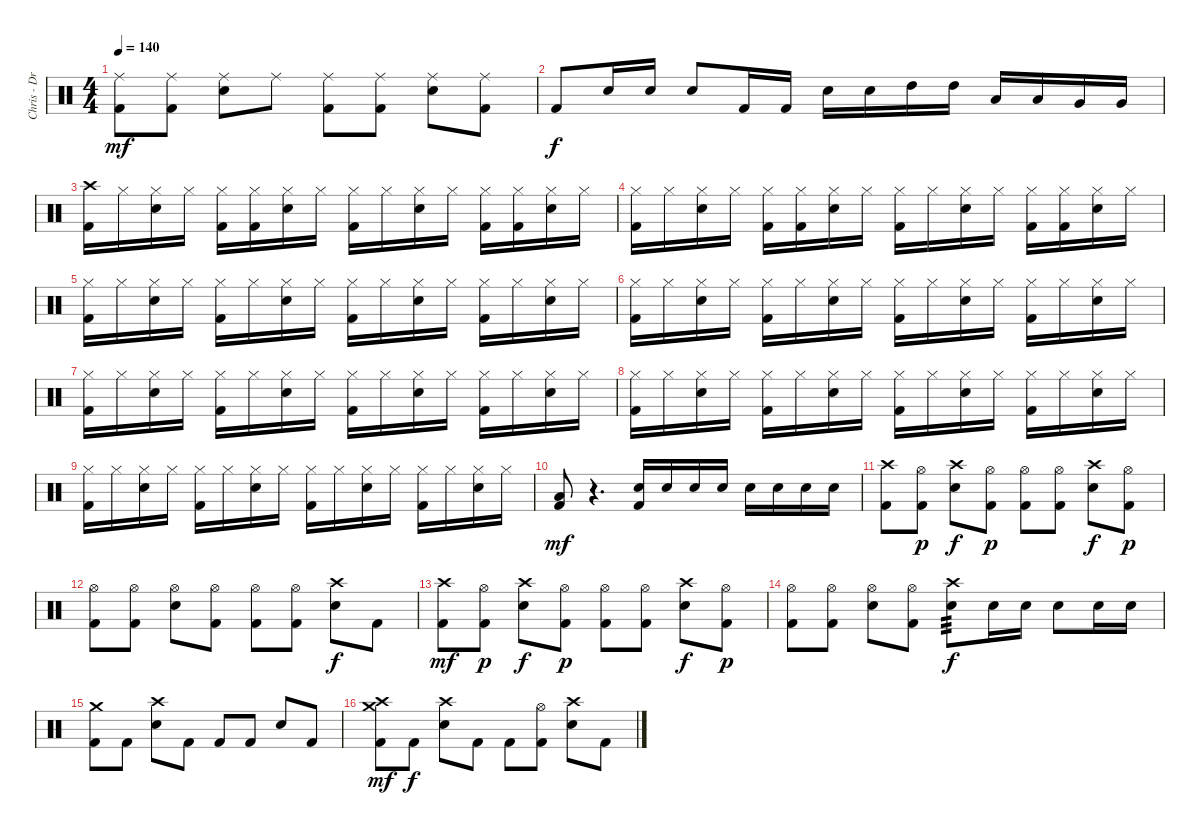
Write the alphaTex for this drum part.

\track ("Chris - Drums" "Chris - Dr") {instrument percussion}
\staff {score}
\articulation defaults
\ts (4 4)
\tempo 140
\clef neutral
\ks c
("Ride (middle)" "Kick (hit) 2").8{dy mf} ("Ride (middle)" "Kick (hit) 2").8 ("Ride (middle)" "Electric Snare (hit)").8 "Ride (middle)".8 ("Ride (middle)" "Kick (hit) 2").8 ("Ride (middle)" "Kick (hit) 2").8 ("Ride (middle)" "Electric Snare (hit)").8 ("Ride (middle)" "Kick (hit) 2").8 |
"Kick (hit) 2".8{dy f} "Electric Snare (hit)".16 "Electric Snare (hit)".16 "Electric Snare (hit)".8 "Kick (hit) 2".16 "Kick (hit) 2".16 "Electric Snare (hit)".16 "Electric Snare (hit)".16 "High Tom (hit)".16 "High Tom (hit)".16 "Low Tom (hit)".16 "Low Tom (hit)".16 "Very Low Tom (hit)".16 "Very Low Tom (hit)".16 |
("Crash high (hit)" "Kick (hit) 2").16 "Hi-Hat (closed)".16 ("Hi-Hat (closed)" "Electric Snare (hit)").16 "Hi-Hat (closed)".16 ("Hi-Hat (closed)" "Kick (hit) 2").16 ("Hi-Hat (closed)" "Kick (hit) 2").16 ("Hi-Hat (closed)" "Electric Snare (hit)").16 "Hi-Hat (closed)".16 ("Hi-Hat (closed)" "Kick (hit) 2").16 "Hi-Hat (closed)".16 ("Hi-Hat (closed)" "Electric Snare (hit)").16 "Hi-Hat (closed)".16 ("Hi-Hat (closed)" "Kick (hit) 2").16 ("Hi-Hat (closed)" "Kick (hit) 2").16 ("Hi-Hat (closed)" "Electric Snare (hit)").16 "Hi-Hat (closed)".16 |
("Hi-Hat (closed)" "Kick (hit) 2").16 "Hi-Hat (closed)".16 ("Hi-Hat (closed)" "Electric Snare (hit)").16 "Hi-Hat (closed)".16 ("Hi-Hat (closed)" "Kick (hit) 2").16 ("Hi-Hat (closed)" "Kick (hit) 2").16 ("Hi-Hat (closed)" "Electric Snare (hit)").16 "Hi-Hat (closed)".16 ("Hi-Hat (closed)" "Kick (hit) 2").16 "Hi-Hat (closed)".16 ("Hi-Hat (closed)" "Electric Snare (hit)").16 "Hi-Hat (closed)".16 ("Hi-Hat (closed)" "Kick (hit) 2").16 ("Hi-Hat (closed)" "Kick (hit) 2").16 ("Hi-Hat (closed)" "Electric Snare (hit)").16 "Hi-Hat (closed)".16 |
("Hi-Hat (closed)" "Kick (hit) 2").16 "Hi-Hat (closed)".16 ("Hi-Hat (closed)" "Electric Snare (hit)").16 "Hi-Hat (closed)".16 ("Hi-Hat (closed)" "Kick (hit) 2").16 "Hi-Hat (closed)".16 ("Hi-Hat (closed)" "Electric Snare (hit)").16 "Hi-Hat (closed)".16 ("Hi-Hat (closed)" "Kick (hit) 2").16 "Hi-Hat (closed)".16 ("Hi-Hat (closed)" "Electric Snare (hit)").16 "Hi-Hat (closed)".16 ("Hi-Hat (closed)" "Kick (hit) 2").16 "Hi-Hat (closed)".16 ("Hi-Hat (closed)" "Electric Snare (hit)").16 "Hi-Hat (closed)".16 |
("Hi-Hat (closed)" "Kick (hit) 2").16 "Hi-Hat (closed)".16 ("Hi-Hat (closed)" "Electric Snare (hit)").16 "Hi-Hat (closed)".16 ("Hi-Hat (closed)" "Kick (hit) 2").16 "Hi-Hat (closed)".16 ("Hi-Hat (closed)" "Electric Snare (hit)").16 "Hi-Hat (closed)".16 ("Hi-Hat (closed)" "Kick (hit) 2").16 "Hi-Hat (closed)".16 ("Hi-Hat (closed)" "Electric Snare (hit)").16 "Hi-Hat (closed)".16 ("Hi-Hat (closed)" "Kick (hit) 2").16 "Hi-Hat (closed)".16 ("Hi-Hat (closed)" "Electric Snare (hit)").16 "Hi-Hat (closed)".16 |
("Hi-Hat (closed)" "Kick (hit) 2").16 "Hi-Hat (closed)".16 ("Hi-Hat (closed)" "Electric Snare (hit)").16 "Hi-Hat (closed)".16 ("Hi-Hat (closed)" "Kick (hit) 2").16 "Hi-Hat (closed)".16 ("Hi-Hat (closed)" "Electric Snare (hit)").16 "Hi-Hat (closed)".16 ("Hi-Hat (closed)" "Kick (hit) 2").16 "Hi-Hat (closed)".16 ("Hi-Hat (closed)" "Electric Snare (hit)").16 "Hi-Hat (closed)".16 ("Hi-Hat (closed)" "Kick (hit) 2").16 "Hi-Hat (closed)".16 ("Hi-Hat (closed)" "Electric Snare (hit)").16 "Hi-Hat (closed)".16 |
("Hi-Hat (closed)" "Kick (hit) 2").16 "Hi-Hat (closed)".16 ("Hi-Hat (closed)" "Electric Snare (hit)").16 "Hi-Hat (closed)".16 ("Hi-Hat (closed)" "Kick (hit) 2").16 "Hi-Hat (closed)".16 ("Hi-Hat (closed)" "Electric Snare (hit)").16 "Hi-Hat (closed)".16 ("Hi-Hat (closed)" "Kick (hit) 2").16 "Hi-Hat (closed)".16 ("Hi-Hat (closed)" "Electric Snare (hit)").16 "Hi-Hat (closed)".16 ("Hi-Hat (closed)" "Kick (hit) 2").16 "Hi-Hat (closed)".16 ("Hi-Hat (closed)" "Electric Snare (hit)").16 "Hi-Hat (closed)".16 |
("Hi-Hat (closed)" "Kick (hit) 2").16 "Hi-Hat (closed)".16 ("Hi-Hat (closed)" "Electric Snare (hit)").16 "Hi-Hat (closed)".16 ("Hi-Hat (closed)" "Kick (hit) 2").16 "Hi-Hat (closed)".16 ("Hi-Hat (closed)" "Electric Snare (hit)").16 "Hi-Hat (closed)".16 ("Hi-Hat (closed)" "Kick (hit) 2").16 "Hi-Hat (closed)".16 ("Hi-Hat (closed)" "Electric Snare (hit)").16 "Hi-Hat (closed)".16 ("Hi-Hat (closed)" "Kick (hit) 2").16 "Hi-Hat (closed)".16 ("Hi-Hat (closed)" "Electric Snare (hit)").16 "Hi-Hat (closed)".16 |
("Low Tom (hit)" "Kick (hit) 2").8{dy mf} r.4{d} ("Electric Snare (hit)" "Kick (hit) 2").16 "Electric Snare (hit)".16 "Electric Snare (hit)".16 "Electric Snare (hit)".16 "Electric Snare (hit)".16 "Electric Snare (hit)".16 "Electric Snare (hit)".16 "Electric Snare (hit)".16 |
("Crash high (hit)" "Kick (hit) 2").8 ("Hi-Hat (open)" "Kick (hit) 2").8{dy p} ("Crash high (hit)" "Electric Snare (hit)").8{dy f} ("Hi-Hat (open)" "Kick (hit) 2").8{dy p} ("Hi-Hat (open)" "Kick (hit) 2").8 ("Hi-Hat (open)" "Kick (hit) 2").8 ("Crash high (hit)" "Electric Snare (hit)").8{dy f} ("Hi-Hat (open)" "Kick (hit) 2").8{dy p} |
("Hi-Hat (open)" "Kick (hit) 2").8 ("Hi-Hat (open)" "Kick (hit) 2").8 ("Hi-Hat (open)" "Electric Snare (hit)").8 ("Hi-Hat (open)" "Kick (hit) 2").8 ("Hi-Hat (open)" "Kick (hit) 2").8 ("Hi-Hat (open)" "Kick (hit) 2").8 ("Crash high (hit)" "Electric Snare (hit)").8{dy f} "Kick (hit) 2".8 |
("Crash high (hit)" "Kick (hit) 2").8{dy mf} ("Hi-Hat (open)" "Kick (hit) 2").8{dy p} ("Crash high (hit)" "Electric Snare (hit)").8{dy f} ("Hi-Hat (open)" "Kick (hit) 2").8{dy p} ("Hi-Hat (open)" "Kick (hit) 2").8 ("Hi-Hat (open)" "Kick (hit) 2").8 ("Crash high (hit)" "Electric Snare (hit)").8{dy f} ("Hi-Hat (open)" "Kick (hit) 2").8{dy p} |
("Hi-Hat (open)" "Kick (hit) 2").8 ("Hi-Hat (open)" "Kick (hit) 2").8 ("Hi-Hat (open)" "Electric Snare (hit)").8 ("Hi-Hat (open)" "Kick (hit) 2").8 ("Crash high (hit)" "Electric Snare (hit)").8{tp 3 dy f} "Electric Snare (hit)".16 "Electric Snare (hit)".16 "Electric Snare (hit)".8 "Electric Snare (hit)".16 "Electric Snare (hit)".16 |
("Crash medium (hit)" "Kick (hit) 2").8 "Kick (hit) 2".8 ("Crash high (hit)" "Electric Snare (hit)").8 "Kick (hit) 2".8 "Kick (hit) 2".8 "Kick (hit) 2".8 "Electric Snare (hit)".8 "Kick (hit) 2".8 |
("Crash medium (hit)" "Crash high (hit)" "Kick (hit) 2").8{dy mf} "Kick (hit) 2".8{dy f} ("Crash high (hit)" "Electric Snare (hit)").8 "Kick (hit) 2".8 "Kick (hit) 2".8 ("Hi-Hat (open)" "Kick (hit) 2").8 ("Crash high (hit)" "Electric Snare (hit)").8 "Kick (hit) 2".8
